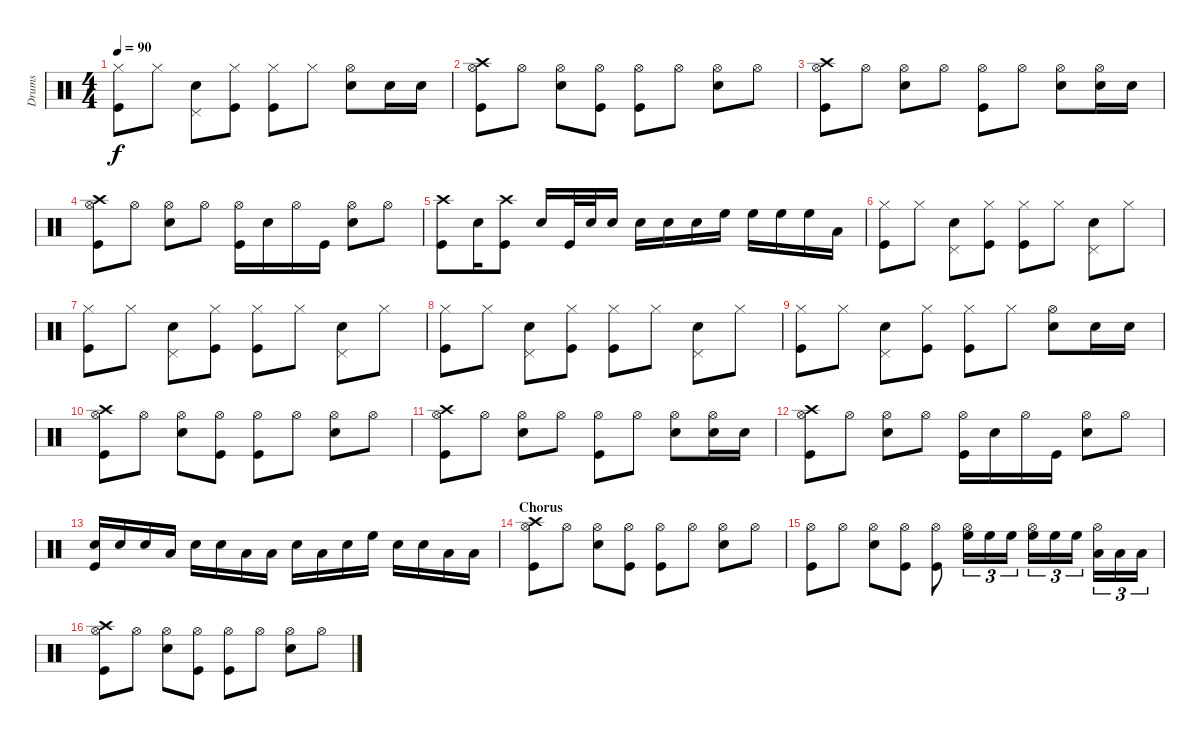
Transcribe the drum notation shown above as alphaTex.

\track ("Drums" "Drums") {instrument percussion}
\staff {score}
\articulation defaults
\ts (4 4)
\tempo 90
\clef neutral
\ks c
("Hi-Hat (closed)" "Kick (hit)").8{dy f} "Hi-Hat (closed)".8 ("Pedal Hi-Hat (hit)" "Snare (hit) 2").8 ("Hi-Hat (closed)" "Kick (hit)").8 ("Hi-Hat (closed)" "Kick (hit)").8 "Hi-Hat (closed)".8 ("Hi-Hat (open)" "Snare (hit) 2").8 "Snare (hit) 2".16 "Snare (hit) 2".16 |
("Hi-Hat (open)" "Crash high (hit)" "Kick (hit)").8 "Hi-Hat (open)".8 ("Hi-Hat (open)" "Snare (hit) 2").8 ("Hi-Hat (open)" "Kick (hit)").8 ("Hi-Hat (open)" "Kick (hit)").8 "Hi-Hat (open)".8 ("Hi-Hat (open)" "Snare (hit) 2").8 "Hi-Hat (open)".8 |
("Hi-Hat (open)" "Crash high (hit)" "Kick (hit)").8 "Hi-Hat (open)".8 ("Hi-Hat (open)" "Snare (hit) 2").8 "Hi-Hat (open)".8 ("Hi-Hat (open)" "Kick (hit)").8 "Hi-Hat (open)".8 ("Hi-Hat (open)" "Snare (hit) 2").8 ("Hi-Hat (open)" "Snare (hit) 2").16 "Snare (hit) 2".16 |
("Hi-Hat (open)" "Crash high (hit)" "Kick (hit)").8 "Hi-Hat (open)".8 ("Hi-Hat (open)" "Snare (hit) 2").8 "Hi-Hat (open)".8 ("Hi-Hat (open)" "Kick (hit)").16 "Snare (hit) 2".16 "Hi-Hat (open)".16 "Kick (hit)".16 ("Hi-Hat (open)" "Snare (hit) 2").8 "Hi-Hat (open)".8 |
("Crash high (hit)" "Kick (hit)").8 "Snare (hit) 2".16 ("Crash high (hit)" "Kick (hit)").8 "Snare (hit) 2".16 "Kick (hit)".32 "Snare (hit) 2".32 "Snare (hit) 2".16 "Snare (hit) 2".16 "Snare (hit) 2".16 "Snare (hit) 2".16 "High Floor Tom (hit)".16 "High Floor Tom (hit)".16 "High Floor Tom (hit)".16 "High Floor Tom (hit)".16 "Low Tom (hit)".16 |
("Hi-Hat (closed)" "Kick (hit)").8 "Hi-Hat (closed)".8 ("Pedal Hi-Hat (hit)" "Snare (hit) 2").8 ("Hi-Hat (closed)" "Kick (hit)").8 ("Hi-Hat (closed)" "Kick (hit)").8 "Hi-Hat (closed)".8 ("Pedal Hi-Hat (hit)" "Snare (hit) 2").8 "Hi-Hat (closed)".8 |
("Hi-Hat (closed)" "Kick (hit)").8 "Hi-Hat (closed)".8 ("Pedal Hi-Hat (hit)" "Snare (hit) 2").8 ("Hi-Hat (closed)" "Kick (hit)").8 ("Hi-Hat (closed)" "Kick (hit)").8 "Hi-Hat (closed)".8 ("Pedal Hi-Hat (hit)" "Snare (hit) 2").8 "Hi-Hat (closed)".8 |
("Hi-Hat (closed)" "Kick (hit)").8 "Hi-Hat (closed)".8 ("Pedal Hi-Hat (hit)" "Snare (hit) 2").8 ("Hi-Hat (closed)" "Kick (hit)").8 ("Hi-Hat (closed)" "Kick (hit)").8 "Hi-Hat (closed)".8 ("Pedal Hi-Hat (hit)" "Snare (hit) 2").8 "Hi-Hat (closed)".8 |
("Hi-Hat (closed)" "Kick (hit)").8 "Hi-Hat (closed)".8 ("Pedal Hi-Hat (hit)" "Snare (hit) 2").8 ("Hi-Hat (closed)" "Kick (hit)").8 ("Hi-Hat (closed)" "Kick (hit)").8 "Hi-Hat (closed)".8 ("Hi-Hat (open)" "Snare (hit) 2").8 "Snare (hit) 2".16 "Snare (hit) 2".16 |
("Hi-Hat (open)" "Crash high (hit)" "Kick (hit)").8 "Hi-Hat (open)".8 ("Hi-Hat (open)" "Snare (hit) 2").8 ("Hi-Hat (open)" "Kick (hit)").8 ("Hi-Hat (open)" "Kick (hit)").8 "Hi-Hat (open)".8 ("Hi-Hat (open)" "Snare (hit) 2").8 "Hi-Hat (open)".8 |
("Hi-Hat (open)" "Crash high (hit)" "Kick (hit)").8 "Hi-Hat (open)".8 ("Hi-Hat (open)" "Snare (hit) 2").8 "Hi-Hat (open)".8 ("Hi-Hat (open)" "Kick (hit)").8 "Hi-Hat (open)".8 ("Hi-Hat (open)" "Snare (hit) 2").8 ("Hi-Hat (open)" "Snare (hit) 2").16 "Snare (hit) 2".16 |
("Hi-Hat (open)" "Crash high (hit)" "Kick (hit)").8 "Hi-Hat (open)".8 ("Hi-Hat (open)" "Snare (hit) 2").8 "Hi-Hat (open)".8 ("Hi-Hat (open)" "Kick (hit)").16 "Snare (hit) 2".16 "Hi-Hat (open)".16 "Kick (hit)".16 ("Hi-Hat (open)" "Snare (hit) 2").8 "Hi-Hat (open)".8 |
("Snare (hit) 2" "Kick (hit)").16 "Snare (hit) 2".16 "Snare (hit) 2".16 "Low Tom (hit)".16 "Snare (hit) 2".16 "Snare (hit) 2".16 "Low Tom (hit)".16 "Low Tom (hit)".16 "Snare (hit) 2".16 "Low Tom (hit)".16 "Snare (hit) 2".16 "High Floor Tom (hit)".16 "Snare (hit) 2".16 "Snare (hit) 2".16 "Low Tom (hit)".16 "Low Tom (hit)".16 |
\section ("" "Chorus")
("Hi-Hat (open)" "Crash high (hit)" "Kick (hit)").8 "Hi-Hat (open)".8 ("Hi-Hat (open)" "Snare (hit) 2").8 ("Hi-Hat (open)" "Kick (hit)").8 ("Hi-Hat (open)" "Kick (hit)").8 "Hi-Hat (open)".8 ("Hi-Hat (open)" "Snare (hit) 2").8 "Hi-Hat (open)".8 |
("Hi-Hat (open)" "Kick (hit)").8 "Hi-Hat (open)".8 ("Hi-Hat (open)" "Snare (hit) 2").8 ("Hi-Hat (open)" "Kick (hit)").8 ("Hi-Hat (open)" "Kick (hit)").8 ("Hi-Hat (open)" "High Floor Tom (hit)").16{tu (3 2)} "High Floor Tom (hit)".16{tu (3 2)} "High Floor Tom (hit)".16{tu (3 2)} ("Hi-Hat (open)" "High Floor Tom (hit)").16{tu (3 2)} "High Floor Tom (hit)".16{tu (3 2)} "High Floor Tom (hit)".16{tu (3 2)} ("Hi-Hat (open)" "Low Tom (hit)").16{tu (3 2)} "Low Tom (hit)".16{tu (3 2)} "Low Tom (hit)".16{tu (3 2)} |
("Hi-Hat (open)" "Crash high (hit)" "Kick (hit)").8 "Hi-Hat (open)".8 ("Hi-Hat (open)" "Snare (hit) 2").8 ("Hi-Hat (open)" "Kick (hit)").8 ("Hi-Hat (open)" "Kick (hit)").8 "Hi-Hat (open)".8 ("Hi-Hat (open)" "Snare (hit) 2").8 "Hi-Hat (open)".8
